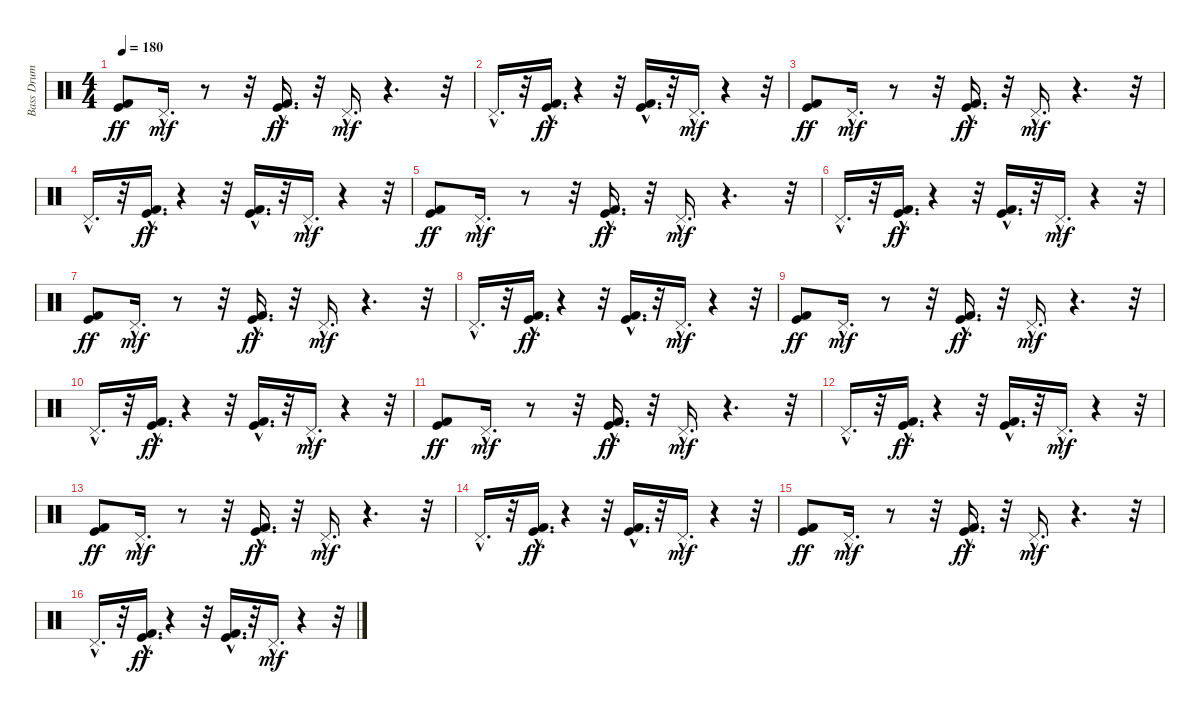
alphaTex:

\track ("Bass Drum" "Bass Drum") {instrument percussion}
\staff {score}
\articulation defaults
\ts (4 4)
\tempo 180
\clef neutral
\ks c
("Kick (hit) 2" "Kick (hit)").8{dy ff} "Pedal Hi-Hat (hit)"{hac}.16{d dy mf} r.8 r.32 ("Kick (hit)"{hac} "Kick (hit) 2"{hac}).16{d dy ff} r.32 "Pedal Hi-Hat (hit)"{hac}.16{d dy mf} r.4{d} r.32 |
"Pedal Hi-Hat (hit)"{hac}.16{d} r.32 ("Kick (hit)"{hac} "Kick (hit) 2"{hac}).16{d dy ff} r.4 r.32 ("Kick (hit) 2"{hac} "Kick (hit)"{hac}).16{d} r.32 "Pedal Hi-Hat (hit)"{hac}.16{d dy mf} r.4 r.32 |
("Kick (hit) 2" "Kick (hit)").8{dy ff} "Pedal Hi-Hat (hit)"{hac}.16{d dy mf} r.8 r.32 ("Kick (hit)"{hac} "Kick (hit) 2"{hac}).16{d dy ff} r.32 "Pedal Hi-Hat (hit)"{hac}.16{d dy mf} r.4{d} r.32 |
"Pedal Hi-Hat (hit)"{hac}.16{d} r.32 ("Kick (hit)"{hac} "Kick (hit) 2"{hac}).16{d dy ff} r.4 r.32 ("Kick (hit) 2"{hac} "Kick (hit)"{hac}).16{d} r.32 "Pedal Hi-Hat (hit)"{hac}.16{d dy mf} r.4 r.32 |
("Kick (hit) 2" "Kick (hit)").8{dy ff} "Pedal Hi-Hat (hit)"{hac}.16{d dy mf} r.8 r.32 ("Kick (hit)"{hac} "Kick (hit) 2"{hac}).16{d dy ff} r.32 "Pedal Hi-Hat (hit)"{hac}.16{d dy mf} r.4{d} r.32 |
"Pedal Hi-Hat (hit)"{hac}.16{d} r.32 ("Kick (hit)"{hac} "Kick (hit) 2"{hac}).16{d dy ff} r.4 r.32 ("Kick (hit) 2"{hac} "Kick (hit)"{hac}).16{d} r.32 "Pedal Hi-Hat (hit)"{hac}.16{d dy mf} r.4 r.32 |
("Kick (hit) 2" "Kick (hit)").8{dy ff} "Pedal Hi-Hat (hit)"{hac}.16{d dy mf} r.8 r.32 ("Kick (hit)"{hac} "Kick (hit) 2"{hac}).16{d dy ff} r.32 "Pedal Hi-Hat (hit)"{hac}.16{d dy mf} r.4{d} r.32 |
"Pedal Hi-Hat (hit)"{hac}.16{d} r.32 ("Kick (hit)"{hac} "Kick (hit) 2"{hac}).16{d dy ff} r.4 r.32 ("Kick (hit) 2"{hac} "Kick (hit)"{hac}).16{d} r.32 "Pedal Hi-Hat (hit)"{hac}.16{d dy mf} r.4 r.32 |
("Kick (hit) 2" "Kick (hit)").8{dy ff} "Pedal Hi-Hat (hit)"{hac}.16{d dy mf} r.8 r.32 ("Kick (hit)"{hac} "Kick (hit) 2"{hac}).16{d dy ff} r.32 "Pedal Hi-Hat (hit)"{hac}.16{d dy mf} r.4{d} r.32 |
"Pedal Hi-Hat (hit)"{hac}.16{d} r.32 ("Kick (hit)"{hac} "Kick (hit) 2"{hac}).16{d dy ff} r.4 r.32 ("Kick (hit) 2"{hac} "Kick (hit)"{hac}).16{d} r.32 "Pedal Hi-Hat (hit)"{hac}.16{d dy mf} r.4 r.32 |
("Kick (hit) 2" "Kick (hit)").8{dy ff} "Pedal Hi-Hat (hit)"{hac}.16{d dy mf} r.8 r.32 ("Kick (hit)"{hac} "Kick (hit) 2"{hac}).16{d dy ff} r.32 "Pedal Hi-Hat (hit)"{hac}.16{d dy mf} r.4{d} r.32 |
"Pedal Hi-Hat (hit)"{hac}.16{d} r.32 ("Kick (hit)"{hac} "Kick (hit) 2"{hac}).16{d dy ff} r.4 r.32 ("Kick (hit) 2"{hac} "Kick (hit)"{hac}).16{d} r.32 "Pedal Hi-Hat (hit)"{hac}.16{d dy mf} r.4 r.32 |
("Kick (hit) 2" "Kick (hit)").8{dy ff} "Pedal Hi-Hat (hit)"{hac}.16{d dy mf} r.8 r.32 ("Kick (hit)"{hac} "Kick (hit) 2"{hac}).16{d dy ff} r.32 "Pedal Hi-Hat (hit)"{hac}.16{d dy mf} r.4{d} r.32 |
"Pedal Hi-Hat (hit)"{hac}.16{d} r.32 ("Kick (hit)"{hac} "Kick (hit) 2"{hac}).16{d dy ff} r.4 r.32 ("Kick (hit) 2"{hac} "Kick (hit)"{hac}).16{d} r.32 "Pedal Hi-Hat (hit)"{hac}.16{d dy mf} r.4 r.32 |
("Kick (hit) 2" "Kick (hit)").8{dy ff} "Pedal Hi-Hat (hit)"{hac}.16{d dy mf} r.8 r.32 ("Kick (hit)"{hac} "Kick (hit) 2"{hac}).16{d dy ff} r.32 "Pedal Hi-Hat (hit)"{hac}.16{d dy mf} r.4{d} r.32 |
"Pedal Hi-Hat (hit)"{hac}.16{d} r.32 ("Kick (hit)"{hac} "Kick (hit) 2"{hac}).16{d dy ff} r.4 r.32 ("Kick (hit) 2"{hac} "Kick (hit)"{hac}).16{d} r.32 "Pedal Hi-Hat (hit)"{hac}.16{d dy mf} r.4 r.32
